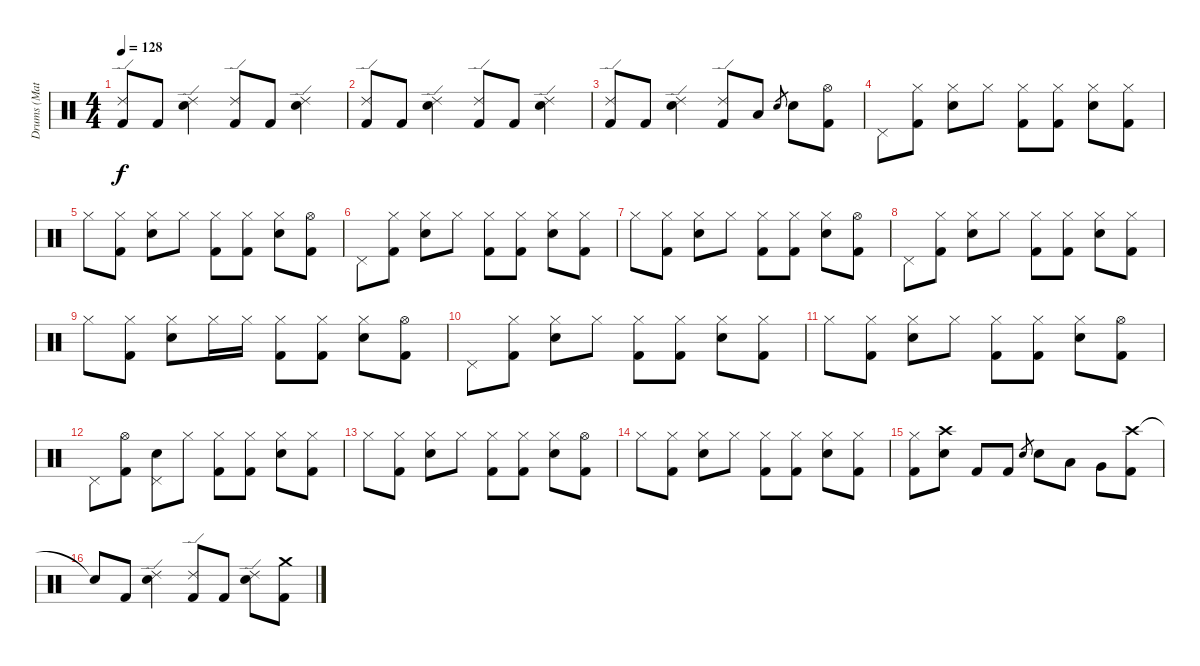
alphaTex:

\track ("Drums (Matt)" "Drums (Mat") {instrument percussion}
\staff {score}
\articulation defaults
\ts (4 4)
\tempo 128
\clef neutral
\ks c
("Ride (edge) 2" "Kick (hit) 2").8{dy f} "Kick (hit) 2".8 ("Ride (edge) 2" "Snare (hit) 2").4 ("Ride (edge) 2" "Kick (hit) 2").8 "Kick (hit) 2".8 ("Ride (edge) 2" "Snare (hit) 2").4 |
("Ride (edge) 2" "Kick (hit) 2").8 "Kick (hit) 2".8 ("Ride (edge) 2" "Snare (hit) 2").4 ("Ride (edge) 2" "Kick (hit) 2").8 "Kick (hit) 2".8 ("Ride (edge) 2" "Snare (hit) 2").4 |
("Ride (edge) 2" "Kick (hit) 2").8 "Kick (hit) 2".8 ("Ride (edge) 2" "Snare (hit) 2").4 ("Ride (edge) 2" "Kick (hit) 2").8 "Low Tom (hit)".8 "Snare (hit) 2".8{gr} "Snare (hit) 2".8 ("Hi-Hat (open)" "Kick (hit) 2").8 |
"Pedal Hi-Hat (hit)".8 ("Hi-Hat (closed)" "Kick (hit) 2").8 ("Hi-Hat (closed)" "Snare (hit) 2").8 "Hi-Hat (closed)".8 ("Hi-Hat (closed)" "Kick (hit) 2").8 ("Hi-Hat (closed)" "Kick (hit) 2").8 ("Hi-Hat (closed)" "Snare (hit) 2").8 ("Hi-Hat (closed)" "Kick (hit) 2").8 |
"Hi-Hat (closed)".8 ("Hi-Hat (closed)" "Kick (hit) 2").8 ("Hi-Hat (closed)" "Snare (hit) 2").8 "Hi-Hat (closed)".8 ("Hi-Hat (closed)" "Kick (hit) 2").8 ("Hi-Hat (closed)" "Kick (hit) 2").8 ("Hi-Hat (closed)" "Snare (hit) 2").8 ("Hi-Hat (open)" "Kick (hit) 2").8 |
"Pedal Hi-Hat (hit)".8 ("Hi-Hat (closed)" "Kick (hit) 2").8 ("Hi-Hat (closed)" "Snare (hit) 2").8 "Hi-Hat (closed)".8 ("Hi-Hat (closed)" "Kick (hit) 2").8 ("Hi-Hat (closed)" "Kick (hit) 2").8 ("Hi-Hat (closed)" "Snare (hit) 2").8 ("Hi-Hat (closed)" "Kick (hit) 2").8 |
"Hi-Hat (closed)".8 ("Hi-Hat (closed)" "Kick (hit) 2").8 ("Hi-Hat (closed)" "Snare (hit) 2").8 "Hi-Hat (closed)".8 ("Hi-Hat (closed)" "Kick (hit) 2").8 ("Hi-Hat (closed)" "Kick (hit) 2").8 ("Hi-Hat (closed)" "Snare (hit) 2").8 ("Hi-Hat (open)" "Kick (hit) 2").8 |
"Pedal Hi-Hat (hit)".8 ("Hi-Hat (closed)" "Kick (hit) 2").8 ("Hi-Hat (closed)" "Snare (hit) 2").8 "Hi-Hat (closed)".8 ("Hi-Hat (closed)" "Kick (hit) 2").8 ("Hi-Hat (closed)" "Kick (hit) 2").8 ("Hi-Hat (closed)" "Snare (hit) 2").8 ("Hi-Hat (closed)" "Kick (hit) 2").8 |
"Hi-Hat (closed)".8 ("Hi-Hat (closed)" "Kick (hit) 2").8 ("Hi-Hat (closed)" "Snare (hit) 2").8 "Hi-Hat (closed)".16 "Hi-Hat (closed)".16 ("Hi-Hat (closed)" "Kick (hit) 2").8 ("Hi-Hat (closed)" "Kick (hit) 2").8 ("Hi-Hat (closed)" "Snare (hit) 2").8 ("Hi-Hat (open)" "Kick (hit) 2").8 |
"Pedal Hi-Hat (hit)".8 ("Hi-Hat (closed)" "Kick (hit) 2").8 ("Hi-Hat (closed)" "Snare (hit) 2").8 "Hi-Hat (closed)".8 ("Hi-Hat (closed)" "Kick (hit) 2").8 ("Hi-Hat (closed)" "Kick (hit) 2").8 ("Hi-Hat (closed)" "Snare (hit) 2").8 ("Hi-Hat (closed)" "Kick (hit) 2").8 |
"Hi-Hat (closed)".8 ("Hi-Hat (closed)" "Kick (hit) 2").8 ("Hi-Hat (closed)" "Snare (hit) 2").8 "Hi-Hat (closed)".8 ("Hi-Hat (closed)" "Kick (hit) 2").8 ("Hi-Hat (closed)" "Kick (hit) 2").8 ("Hi-Hat (closed)" "Snare (hit) 2").8 ("Hi-Hat (open)" "Kick (hit) 2").8 |
"Pedal Hi-Hat (hit)".8 ("Hi-Hat (open)" "Kick (hit) 2").8 ("Pedal Hi-Hat (hit)" "Snare (hit) 2").8 "Hi-Hat (closed)".8 ("Hi-Hat (closed)" "Kick (hit) 2").8 ("Hi-Hat (closed)" "Kick (hit) 2").8 ("Hi-Hat (closed)" "Snare (hit) 2").8 ("Hi-Hat (closed)" "Kick (hit) 2").8 |
"Hi-Hat (closed)".8 ("Hi-Hat (closed)" "Kick (hit) 2").8 ("Hi-Hat (closed)" "Snare (hit) 2").8 "Hi-Hat (closed)".8 ("Hi-Hat (closed)" "Kick (hit) 2").8 ("Hi-Hat (closed)" "Kick (hit) 2").8 ("Hi-Hat (closed)" "Snare (hit) 2").8 ("Hi-Hat (open)" "Kick (hit) 2").8 |
"Hi-Hat (closed)".8 ("Hi-Hat (closed)" "Kick (hit) 2").8 ("Hi-Hat (closed)" "Snare (hit) 2").8 "Hi-Hat (closed)".8 ("Hi-Hat (closed)" "Kick (hit) 2").8 ("Hi-Hat (closed)" "Kick (hit) 2").8 ("Hi-Hat (closed)" "Snare (hit) 2").8 ("Hi-Hat (closed)" "Kick (hit) 2").8 |
("Hi-Hat (closed)" "Kick (hit) 2").8 ("Crash high (hit)" "Snare (hit) 2").8 "Kick (hit) 2".8 "Kick (hit) 2".8 "Snare (hit) 2".8{gr} "Snare (hit) 2".8 "Low Tom (hit)".8 "Very Low Tom (hit)".8 ("Crash high (hit)" "Kick (hit) 2").8 |
"Snare (hit)"{t}.8 "Kick (hit) 2".8 ("Ride (edge) 2" "Snare (hit) 2").4 ("Ride (edge) 2" "Kick (hit) 2").8 "Kick (hit) 2".8 ("Ride (edge) 2" "Snare (hit) 2").8 ("Crash medium (hit)" "Kick (hit) 2").8
